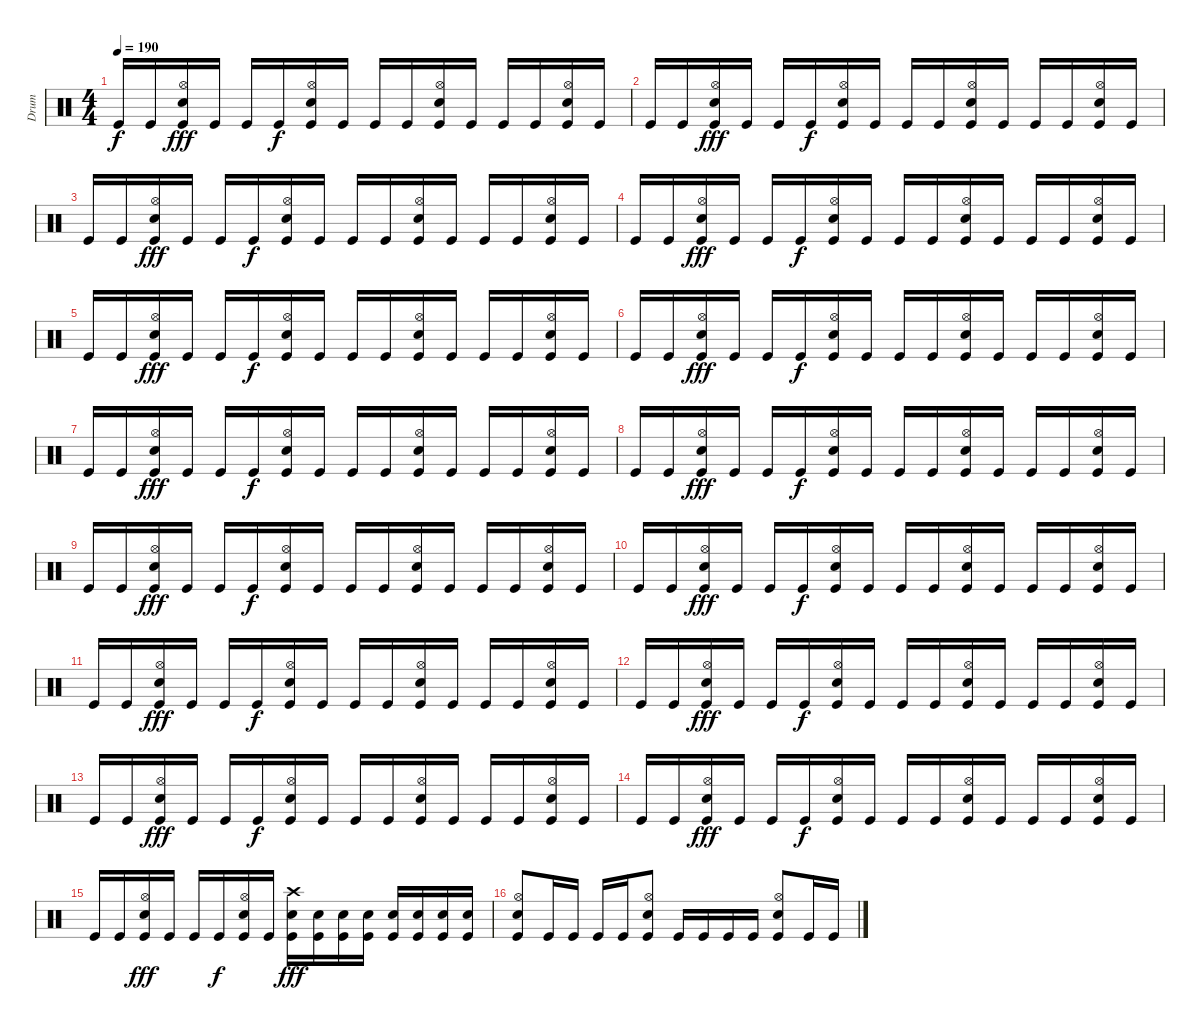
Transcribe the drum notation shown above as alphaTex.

\track ("Drum" "Drum") {instrument percussion}
\staff {score}
\articulation defaults
\ts (4 4)
\tempo 190
\clef neutral
\ks c "Kick (hit)".16{dy f} "Kick (hit)".16
("Hi-Hat (open)" "Snare (hit) 2" "Kick (hit)").16{dy fff} "Kick (hit)".16 "Kick (hit)".16 "Kick (hit)".16{dy f} ("Hi-Hat (open)" "Snare (hit) 2" "Kick (hit)").16 "Kick (hit)".16 "Kick (hit)".16 "Kick (hit)".16 ("Hi-Hat (open)" "Snare (hit) 2" "Kick (hit)").16 "Kick (hit)".16 "Kick (hit)".16 "Kick (hit)".16 ("Hi-Hat (open)" "Snare (hit) 2" "Kick (hit)").16 "Kick (hit)".16 |
"Kick (hit)".16 "Kick (hit)".16 ("Hi-Hat (open)" "Snare (hit) 2" "Kick (hit)").16{dy fff} "Kick (hit)".16 "Kick (hit)".16 "Kick (hit)".16{dy f} ("Hi-Hat (open)" "Snare (hit) 2" "Kick (hit)").16 "Kick (hit)".16 "Kick (hit)".16 "Kick (hit)".16 ("Hi-Hat (open)" "Snare (hit) 2" "Kick (hit)").16 "Kick (hit)".16 "Kick (hit)".16 "Kick (hit)".16 ("Hi-Hat (open)" "Snare (hit) 2" "Kick (hit)").16 "Kick (hit)".16 |
"Kick (hit)".16 "Kick (hit)".16 ("Hi-Hat (open)" "Snare (hit) 2" "Kick (hit)").16{dy fff} "Kick (hit)".16 "Kick (hit)".16 "Kick (hit)".16{dy f} ("Hi-Hat (open)" "Snare (hit) 2" "Kick (hit)").16 "Kick (hit)".16 "Kick (hit)".16 "Kick (hit)".16 ("Hi-Hat (open)" "Snare (hit) 2" "Kick (hit)").16 "Kick (hit)".16 "Kick (hit)".16 "Kick (hit)".16 ("Hi-Hat (open)" "Snare (hit) 2" "Kick (hit)").16 "Kick (hit)".16 |
"Kick (hit)".16 "Kick (hit)".16 ("Hi-Hat (open)" "Snare (hit) 2" "Kick (hit)").16{dy fff} "Kick (hit)".16 "Kick (hit)".16 "Kick (hit)".16{dy f} ("Hi-Hat (open)" "Snare (hit) 2" "Kick (hit)").16 "Kick (hit)".16 "Kick (hit)".16 "Kick (hit)".16 ("Hi-Hat (open)" "Snare (hit) 2" "Kick (hit)").16 "Kick (hit)".16 "Kick (hit)".16 "Kick (hit)".16 ("Hi-Hat (open)" "Snare (hit) 2" "Kick (hit)").16 "Kick (hit)".16 |
"Kick (hit)".16 "Kick (hit)".16 ("Hi-Hat (open)" "Snare (hit) 2" "Kick (hit)").16{dy fff} "Kick (hit)".16 "Kick (hit)".16 "Kick (hit)".16{dy f} ("Hi-Hat (open)" "Snare (hit) 2" "Kick (hit)").16 "Kick (hit)".16 "Kick (hit)".16 "Kick (hit)".16 ("Hi-Hat (open)" "Snare (hit) 2" "Kick (hit)").16 "Kick (hit)".16 "Kick (hit)".16 "Kick (hit)".16 ("Hi-Hat (open)" "Snare (hit) 2" "Kick (hit)").16 "Kick (hit)".16 |
"Kick (hit)".16 "Kick (hit)".16 ("Hi-Hat (open)" "Snare (hit) 2" "Kick (hit)").16{dy fff} "Kick (hit)".16 "Kick (hit)".16 "Kick (hit)".16{dy f} ("Hi-Hat (open)" "Snare (hit) 2" "Kick (hit)").16 "Kick (hit)".16 "Kick (hit)".16 "Kick (hit)".16 ("Hi-Hat (open)" "Snare (hit) 2" "Kick (hit)").16 "Kick (hit)".16 "Kick (hit)".16 "Kick (hit)".16 ("Hi-Hat (open)" "Snare (hit) 2" "Kick (hit)").16 "Kick (hit)".16 |
"Kick (hit)".16 "Kick (hit)".16 ("Hi-Hat (open)" "Snare (hit) 2" "Kick (hit)").16{dy fff} "Kick (hit)".16 "Kick (hit)".16 "Kick (hit)".16{dy f} ("Hi-Hat (open)" "Snare (hit) 2" "Kick (hit)").16 "Kick (hit)".16 "Kick (hit)".16 "Kick (hit)".16 ("Hi-Hat (open)" "Snare (hit) 2" "Kick (hit)").16 "Kick (hit)".16 "Kick (hit)".16 "Kick (hit)".16 ("Hi-Hat (open)" "Snare (hit) 2" "Kick (hit)").16 "Kick (hit)".16 |
"Kick (hit)".16 "Kick (hit)".16 ("Hi-Hat (open)" "Snare (hit) 2" "Kick (hit)").16{dy fff} "Kick (hit)".16 "Kick (hit)".16 "Kick (hit)".16{dy f} ("Hi-Hat (open)" "Snare (hit) 2" "Kick (hit)").16 "Kick (hit)".16 "Kick (hit)".16 "Kick (hit)".16 ("Hi-Hat (open)" "Snare (hit) 2" "Kick (hit)").16 "Kick (hit)".16 "Kick (hit)".16 "Kick (hit)".16 ("Hi-Hat (open)" "Snare (hit) 2" "Kick (hit)").16 "Kick (hit)".16 |
"Kick (hit)".16 "Kick (hit)".16 ("Hi-Hat (open)" "Snare (hit) 2" "Kick (hit)").16{dy fff} "Kick (hit)".16 "Kick (hit)".16 "Kick (hit)".16{dy f} ("Hi-Hat (open)" "Snare (hit) 2" "Kick (hit)").16 "Kick (hit)".16 "Kick (hit)".16 "Kick (hit)".16 ("Hi-Hat (open)" "Snare (hit) 2" "Kick (hit)").16 "Kick (hit)".16 "Kick (hit)".16 "Kick (hit)".16 ("Hi-Hat (open)" "Snare (hit) 2" "Kick (hit)").16 "Kick (hit)".16 |
"Kick (hit)".16 "Kick (hit)".16 ("Hi-Hat (open)" "Snare (hit) 2" "Kick (hit)").16{dy fff} "Kick (hit)".16 "Kick (hit)".16 "Kick (hit)".16{dy f} ("Hi-Hat (open)" "Snare (hit) 2" "Kick (hit)").16 "Kick (hit)".16 "Kick (hit)".16 "Kick (hit)".16 ("Hi-Hat (open)" "Snare (hit) 2" "Kick (hit)").16 "Kick (hit)".16 "Kick (hit)".16 "Kick (hit)".16 ("Hi-Hat (open)" "Snare (hit) 2" "Kick (hit)").16 "Kick (hit)".16 |
"Kick (hit)".16 "Kick (hit)".16 ("Hi-Hat (open)" "Snare (hit) 2" "Kick (hit)").16{dy fff} "Kick (hit)".16 "Kick (hit)".16 "Kick (hit)".16{dy f} ("Hi-Hat (open)" "Snare (hit) 2" "Kick (hit)").16 "Kick (hit)".16 "Kick (hit)".16 "Kick (hit)".16 ("Hi-Hat (open)" "Snare (hit) 2" "Kick (hit)").16 "Kick (hit)".16 "Kick (hit)".16 "Kick (hit)".16 ("Hi-Hat (open)" "Snare (hit) 2" "Kick (hit)").16 "Kick (hit)".16 |
"Kick (hit)".16 "Kick (hit)".16 ("Hi-Hat (open)" "Snare (hit) 2" "Kick (hit)").16{dy fff} "Kick (hit)".16 "Kick (hit)".16 "Kick (hit)".16{dy f} ("Hi-Hat (open)" "Snare (hit) 2" "Kick (hit)").16 "Kick (hit)".16 "Kick (hit)".16 "Kick (hit)".16 ("Hi-Hat (open)" "Snare (hit) 2" "Kick (hit)").16 "Kick (hit)".16 "Kick (hit)".16 "Kick (hit)".16 ("Hi-Hat (open)" "Snare (hit) 2" "Kick (hit)").16 "Kick (hit)".16 |
"Kick (hit)".16 "Kick (hit)".16 ("Hi-Hat (open)" "Snare (hit) 2" "Kick (hit)").16{dy fff} "Kick (hit)".16 "Kick (hit)".16 "Kick (hit)".16{dy f} ("Hi-Hat (open)" "Snare (hit) 2" "Kick (hit)").16 "Kick (hit)".16 "Kick (hit)".16 "Kick (hit)".16 ("Hi-Hat (open)" "Snare (hit) 2" "Kick (hit)").16 "Kick (hit)".16 "Kick (hit)".16 "Kick (hit)".16 ("Hi-Hat (open)" "Snare (hit) 2" "Kick (hit)").16 "Kick (hit)".16 |
"Kick (hit)".16 "Kick (hit)".16 ("Hi-Hat (open)" "Snare (hit) 2" "Kick (hit)").16{dy fff} "Kick (hit)".16 "Kick (hit)".16 "Kick (hit)".16{dy f} ("Hi-Hat (open)" "Snare (hit) 2" "Kick (hit)").16 "Kick (hit)".16 "Kick (hit)".16 "Kick (hit)".16 ("Hi-Hat (open)" "Snare (hit) 2" "Kick (hit)").16 "Kick (hit)".16 "Kick (hit)".16 "Kick (hit)".16 ("Hi-Hat (open)" "Snare (hit) 2" "Kick (hit)").16 "Kick (hit)".16 |
"Kick (hit)".16 "Kick (hit)".16 ("Hi-Hat (open)" "Snare (hit) 2" "Kick (hit)").16{dy fff} "Kick (hit)".16 "Kick (hit)".16 "Kick (hit)".16{dy f} ("Hi-Hat (open)" "Snare (hit) 2" "Kick (hit)").16 "Kick (hit)".16 ("Crash high (hit)" "Snare (hit) 2" "Kick (hit)").16{dy fff} ("Snare (hit) 2" "Kick (hit)").16 ("Snare (hit) 2" "Kick (hit)").16 ("Snare (hit) 2" "Kick (hit)").16 ("Snare (hit) 2" "Kick (hit)").16 ("Snare (hit) 2" "Kick (hit)").16 ("Snare (hit) 2" "Kick (hit)").16 ("Snare (hit) 2" "Kick (hit)").16 |
("Hi-Hat (open)" "Snare (hit) 2" "Kick (hit)").8 "Kick (hit)".16 "Kick (hit)".16 "Kick (hit)".16 "Kick (hit)".16 ("Hi-Hat (open)" "Snare (hit) 2" "Kick (hit)").8 "Kick (hit)".16 "Kick (hit)".16 "Kick (hit)".16 "Kick (hit)".16 ("Hi-Hat (open)" "Snare (hit) 2" "Kick (hit)").8 "Kick (hit)".16 "Kick (hit)".16
